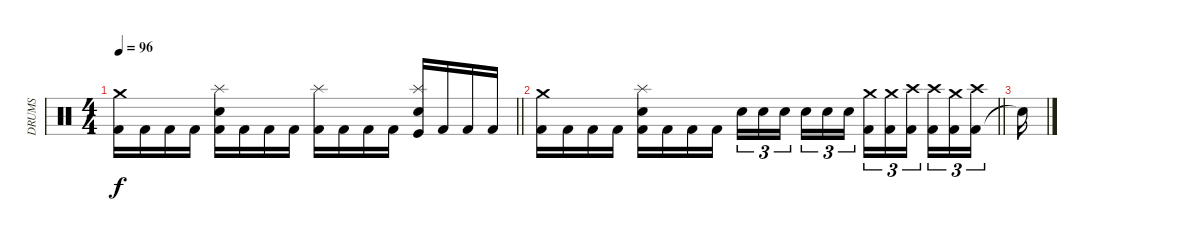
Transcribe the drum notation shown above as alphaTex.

\track ("DRUMS" "DRUMS") {instrument percussion}
\staff {score}
\articulation defaults
\ts (4 4)
\tempo 96
\clef neutral
\barLineRight lightlight
\ks c
("Kick (hit) 2" "Crash medium (hit)").16{dy f} "Kick (hit) 2".16 "Kick (hit) 2".16 "Kick (hit) 2".16 ("Kick (hit) 2" "Electric Snare (hit)" "Splash (hit)").16 "Kick (hit) 2".16 "Kick (hit) 2".16 "Kick (hit) 2".16 ("Kick (hit) 2" "Splash (hit)").16 "Kick (hit) 2".16 "Kick (hit) 2".16 "Kick (hit) 2".16 ("Kick (hit)" "Electric Snare (hit)" "Splash (hit)").16 "Kick (hit) 2".16 "Kick (hit) 2".16 "Kick (hit) 2".16 |
\barLineRight lightlight
("Kick (hit) 2" "Crash medium (hit)").16 "Kick (hit) 2".16 "Kick (hit) 2".16 "Kick (hit) 2".16 ("Kick (hit) 2" "Electric Snare (hit)" "Splash (hit)").16 "Kick (hit) 2".16 "Kick (hit) 2".16 "Kick (hit) 2".16 "Electric Snare (hit)".16{tu (3 2)} "Electric Snare (hit)".16{tu (3 2)} "Electric Snare (hit)".16{tu (3 2) beam splitsecondary} "Electric Snare (hit)".16{tu (3 2)} "Electric Snare (hit)".16{tu (3 2)} "Electric Snare (hit)".16{tu (3 2)} ("Kick (hit) 2" "Crash medium (hit)").16{tu (3 2)} ("Kick (hit) 2" "Crash medium (hit)").16{tu (3 2)} ("Kick (hit) 2" "Crash high (hit)").16{tu (3 2) beam splitsecondary} ("Kick (hit) 2" "Crash high (hit)").16{tu (3 2)} ("Kick (hit) 2" "Crash medium (hit)").16{tu (3 2)} ("Kick (hit) 2" "Crash high (hit)").16{tu (3 2)} |
"Snare (hit)"{t}.16
